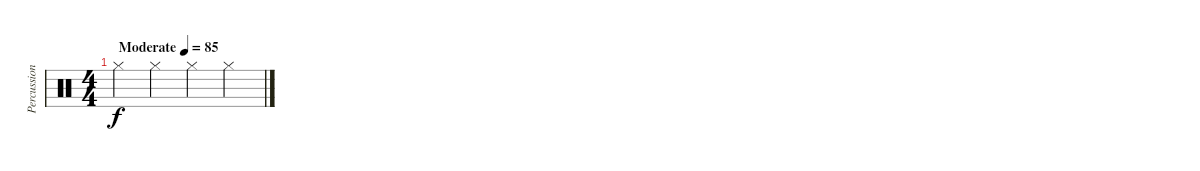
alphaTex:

\track ("Percussion" "Percussion") {instrument percussion}
\staff {score}
\articulation defaults
\ts (4 4)
\tempo (85 "Moderate")
\clef neutral
\ks c "Hi-Hat (closed)".4{dy f} "Hi-Hat (closed)".4 "Hi-Hat (closed)".4 "Hi-Hat (closed)".4
